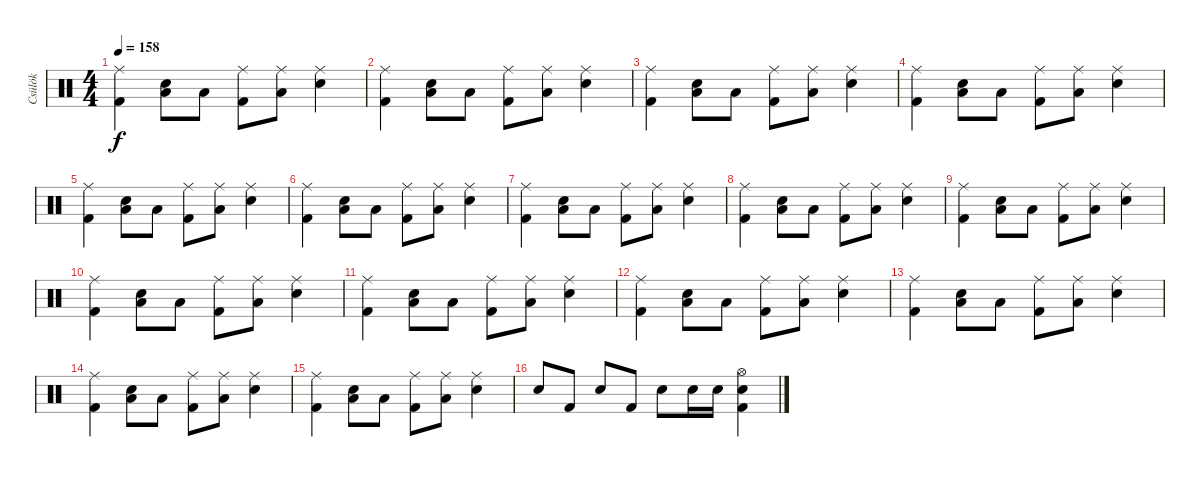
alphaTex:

\track ("Csülök" "Csülök") {instrument percussion}
\staff {score}
\articulation defaults
\ts (4 4)
\tempo 158
\clef neutral
\ks c
("Kick (hit) 2" "Ride (middle)").4{dy f} ("Snare (hit) 2" "Low Tom (hit)").8 "Low Tom (hit)".8 ("Kick (hit) 2" "Ride (middle)").8 ("Low Tom (hit)" "Ride (middle)").8 ("Snare (hit) 2" "Ride (middle)").4 |
("Kick (hit) 2" "Ride (middle)").4 ("Snare (hit) 2" "Low Tom (hit)").8 "Low Tom (hit)".8 ("Kick (hit) 2" "Ride (middle)").8 ("Low Tom (hit)" "Ride (middle)").8 ("Snare (hit) 2" "Ride (middle)").4 |
("Kick (hit) 2" "Ride (middle)").4 ("Snare (hit) 2" "Low Tom (hit)").8 "Low Tom (hit)".8 ("Kick (hit) 2" "Ride (middle)").8 ("Low Tom (hit)" "Ride (middle)").8 ("Snare (hit) 2" "Ride (middle)").4 |
("Kick (hit) 2" "Ride (middle)").4 ("Snare (hit) 2" "Low Tom (hit)").8 "Low Tom (hit)".8 ("Kick (hit) 2" "Ride (middle)").8 ("Low Tom (hit)" "Ride (middle)").8 ("Snare (hit) 2" "Ride (middle)").4 |
("Kick (hit) 2" "Ride (middle)").4 ("Snare (hit) 2" "Low Tom (hit)").8 "Low Tom (hit)".8 ("Kick (hit) 2" "Ride (middle)").8 ("Low Tom (hit)" "Ride (middle)").8 ("Snare (hit) 2" "Ride (middle)").4 |
("Kick (hit) 2" "Ride (middle)").4 ("Snare (hit) 2" "Low Tom (hit)").8 "Low Tom (hit)".8 ("Kick (hit) 2" "Ride (middle)").8 ("Low Tom (hit)" "Ride (middle)").8 ("Snare (hit) 2" "Ride (middle)").4 |
("Kick (hit) 2" "Ride (middle)").4 ("Snare (hit) 2" "Low Tom (hit)").8 "Low Tom (hit)".8 ("Kick (hit) 2" "Ride (middle)").8 ("Low Tom (hit)" "Ride (middle)").8 ("Snare (hit) 2" "Ride (middle)").4 |
("Kick (hit) 2" "Ride (middle)").4 ("Snare (hit) 2" "Low Tom (hit)").8 "Low Tom (hit)".8 ("Kick (hit) 2" "Ride (middle)").8 ("Low Tom (hit)" "Ride (middle)").8 ("Snare (hit) 2" "Ride (middle)").4 |
("Kick (hit) 2" "Ride (middle)").4 ("Snare (hit) 2" "Low Tom (hit)").8 "Low Tom (hit)".8 ("Kick (hit) 2" "Ride (middle)").8 ("Low Tom (hit)" "Ride (middle)").8 ("Snare (hit) 2" "Ride (middle)").4 |
("Kick (hit) 2" "Ride (middle)").4 ("Snare (hit) 2" "Low Tom (hit)").8 "Low Tom (hit)".8 ("Kick (hit) 2" "Ride (middle)").8 ("Low Tom (hit)" "Ride (middle)").8 ("Snare (hit) 2" "Ride (middle)").4 |
("Kick (hit) 2" "Ride (middle)").4 ("Snare (hit) 2" "Low Tom (hit)").8 "Low Tom (hit)".8 ("Kick (hit) 2" "Ride (middle)").8 ("Low Tom (hit)" "Ride (middle)").8 ("Snare (hit) 2" "Ride (middle)").4 |
("Kick (hit) 2" "Ride (middle)").4 ("Snare (hit) 2" "Low Tom (hit)").8 "Low Tom (hit)".8 ("Kick (hit) 2" "Ride (middle)").8 ("Low Tom (hit)" "Ride (middle)").8 ("Snare (hit) 2" "Ride (middle)").4 |
("Kick (hit) 2" "Ride (middle)").4 ("Snare (hit) 2" "Low Tom (hit)").8 "Low Tom (hit)".8 ("Kick (hit) 2" "Ride (middle)").8 ("Low Tom (hit)" "Ride (middle)").8 ("Snare (hit) 2" "Ride (middle)").4 |
("Kick (hit) 2" "Ride (middle)").4 ("Snare (hit) 2" "Low Tom (hit)").8 "Low Tom (hit)".8 ("Kick (hit) 2" "Ride (middle)").8 ("Low Tom (hit)" "Ride (middle)").8 ("Snare (hit) 2" "Ride (middle)").4 |
("Kick (hit) 2" "Ride (middle)").4 ("Snare (hit) 2" "Low Tom (hit)").8 "Low Tom (hit)".8 ("Kick (hit) 2" "Ride (middle)").8 ("Low Tom (hit)" "Ride (middle)").8 ("Snare (hit) 2" "Ride (middle)").4 |
"Snare (hit) 2".8 "Kick (hit) 2".8 "Snare (hit) 2".8 "Kick (hit) 2".8 "Snare (hit) 2".8 "Snare (hit) 2".16 "Snare (hit) 2".16 ("Hi-Hat (open)" "Snare (hit) 2" "Kick (hit) 2").4
